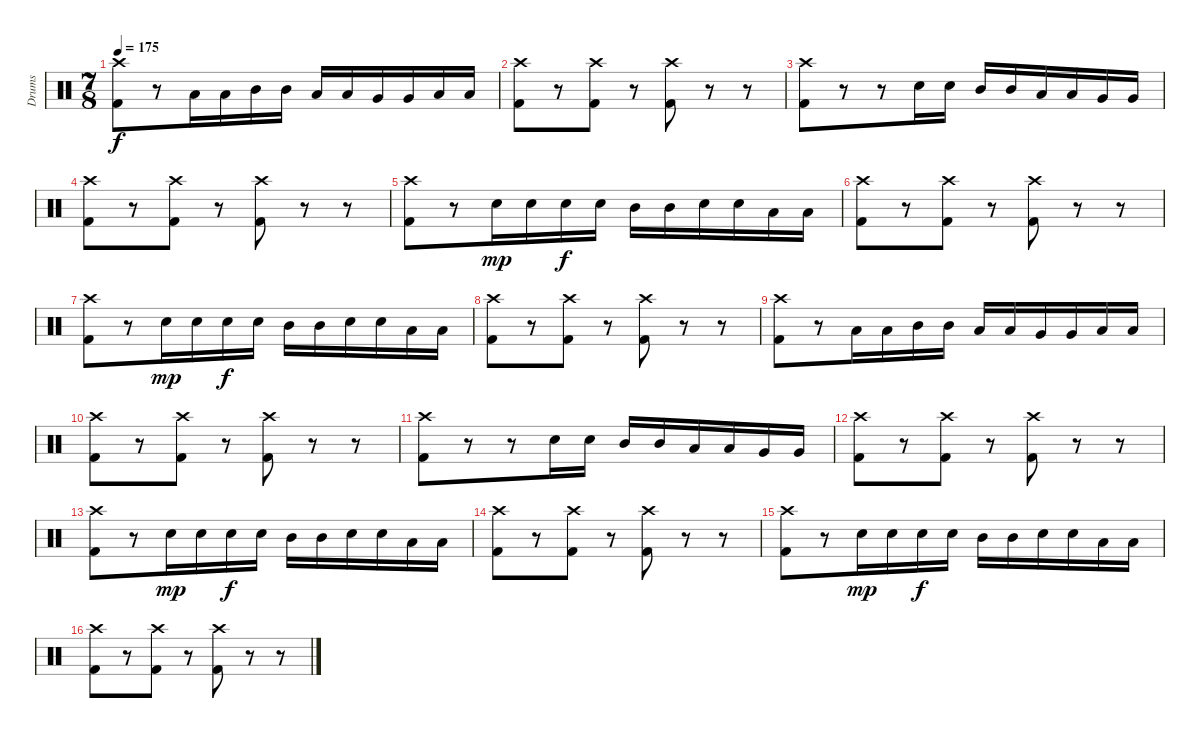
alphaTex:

\track ("Drums" "Drums") {instrument percussion}
\staff {score}
\articulation defaults
\ts (7 8)
\tempo 175
\clef neutral
\ks c
("Crash high (hit)" "Kick (hit) 2").8{dy f} r.8 "Low Tom (hit)".16 "Low Tom (hit)".16 "Mid Tom (hit)".16 "Mid Tom (hit)".16 "Low Tom (hit)".16 "Low Tom (hit)".16 "Very Low Tom (hit)".16 "Very Low Tom (hit)".16 "Low Floor Tom (hit)".16 "Low Floor Tom (hit)".16 |
("Crash high (hit)" "Kick (hit) 2").8 r.8 ("Crash high (hit)" "Kick (hit) 2").8 r.8 ("Crash high (hit)" "Kick (hit) 2").8 r.8 r.8 |
("Crash high (hit)" "Kick (hit) 2").8 r.8 r.8 "Snare (hit) 2".16 "Snare (hit) 2".16 "Mid Tom (hit)".16 "Mid Tom (hit)".16 "Low Tom (hit)".16 "Low Tom (hit)".16 "Very Low Tom (hit)".16 "Very Low Tom (hit)".16 |
("Crash high (hit)" "Kick (hit) 2").8 r.8 ("Crash high (hit)" "Kick (hit) 2").8 r.8 ("Crash high (hit)" "Kick (hit) 2").8 r.8 r.8 |
("Crash high (hit)" "Kick (hit) 2").8 r.8 "Snare (hit) 2".16{dy mp} "Snare (hit) 2".16 "Snare (hit) 2".16{dy f} "Snare (hit) 2".16 "Mid Tom (hit)".16 "Mid Tom (hit)".16 "Snare (hit) 2".16 "Snare (hit) 2".16 "Low Tom (hit)".16 "Low Tom (hit)".16 |
("Crash high (hit)" "Kick (hit) 2").8 r.8 ("Crash high (hit)" "Kick (hit) 2").8 r.8 ("Crash high (hit)" "Kick (hit) 2").8 r.8 r.8 |
("Crash high (hit)" "Kick (hit) 2").8 r.8 "Snare (hit) 2".16{dy mp} "Snare (hit) 2".16 "Snare (hit) 2".16{dy f} "Snare (hit) 2".16 "Mid Tom (hit)".16 "Mid Tom (hit)".16 "Snare (hit) 2".16 "Snare (hit) 2".16 "Low Tom (hit)".16 "Low Tom (hit)".16 |
("Crash high (hit)" "Kick (hit) 2").8 r.8 ("Crash high (hit)" "Kick (hit) 2").8 r.8 ("Crash high (hit)" "Kick (hit) 2").8 r.8 r.8 |
("Crash high (hit)" "Kick (hit) 2").8 r.8 "Low Tom (hit)".16 "Low Tom (hit)".16 "Mid Tom (hit)".16 "Mid Tom (hit)".16 "Low Tom (hit)".16 "Low Tom (hit)".16 "Very Low Tom (hit)".16 "Very Low Tom (hit)".16 "Low Floor Tom (hit)".16 "Low Floor Tom (hit)".16 |
("Crash high (hit)" "Kick (hit) 2").8 r.8 ("Crash high (hit)" "Kick (hit) 2").8 r.8 ("Crash high (hit)" "Kick (hit) 2").8 r.8 r.8 |
("Crash high (hit)" "Kick (hit) 2").8 r.8 r.8 "Snare (hit) 2".16 "Snare (hit) 2".16 "Mid Tom (hit)".16 "Mid Tom (hit)".16 "Low Tom (hit)".16 "Low Tom (hit)".16 "Very Low Tom (hit)".16 "Very Low Tom (hit)".16 |
("Crash high (hit)" "Kick (hit) 2").8 r.8 ("Crash high (hit)" "Kick (hit) 2").8 r.8 ("Crash high (hit)" "Kick (hit) 2").8 r.8 r.8 |
("Crash high (hit)" "Kick (hit) 2").8 r.8 "Snare (hit) 2".16{dy mp} "Snare (hit) 2".16 "Snare (hit) 2".16{dy f} "Snare (hit) 2".16 "Mid Tom (hit)".16 "Mid Tom (hit)".16 "Snare (hit) 2".16 "Snare (hit) 2".16 "Low Tom (hit)".16 "Low Tom (hit)".16 |
("Crash high (hit)" "Kick (hit) 2").8 r.8 ("Crash high (hit)" "Kick (hit) 2").8 r.8 ("Crash high (hit)" "Kick (hit) 2").8 r.8 r.8 |
("Crash high (hit)" "Kick (hit) 2").8 r.8 "Snare (hit) 2".16{dy mp} "Snare (hit) 2".16 "Snare (hit) 2".16{dy f} "Snare (hit) 2".16 "Mid Tom (hit)".16 "Mid Tom (hit)".16 "Snare (hit) 2".16 "Snare (hit) 2".16 "Low Tom (hit)".16 "Low Tom (hit)".16 |
("Crash high (hit)" "Kick (hit) 2").8 r.8 ("Crash high (hit)" "Kick (hit) 2").8 r.8 ("Crash high (hit)" "Kick (hit) 2").8 r.8 r.8
